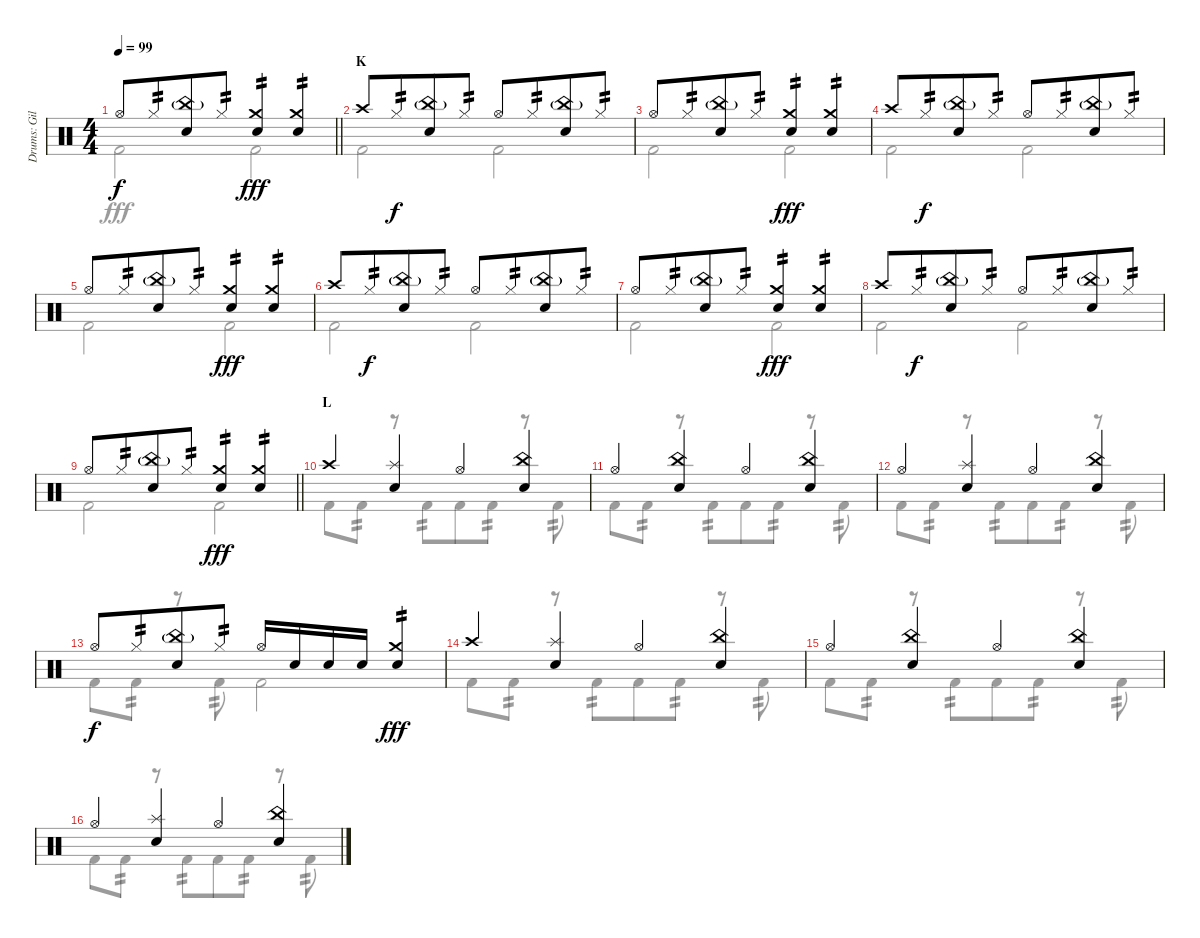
\track ("Drums: Gil" "Drums: Gil") {instrument percussion}
\staff {score}
\articulation defaults
\voice
\ts (4 4)
\tempo 99
\clef neutral
\barLineRight lightlight
\ks c "Hi-Hat (open)".8{dy f} "Hi-Hat (closed)".8{tp 2 beam merge}
("China (hit)"{g} "Snare (hit) 2").8 "Hi-Hat (closed)".8{tp 2} ("Crash medium (hit)" "Snare (hit) 2").4{tp 2 dy fff} ("Crash medium (hit)" "Snare (hit) 2").4{tp 2} |
\section ("" "K")
"Crash high (hit)".8 "Hi-Hat (closed)".8{tp 2 dy f beam merge} ("China (hit)"{g} "Snare (hit) 2").8 "Hi-Hat (closed)".8{tp 2} "Hi-Hat (open)".8 "Hi-Hat (closed)".8{tp 2 beam merge} ("China (hit)"{g} "Snare (hit) 2").8 "Hi-Hat (closed)".8{tp 2} |
"Hi-Hat (open)".8 "Hi-Hat (closed)".8{tp 2 beam merge} ("China (hit)"{g} "Snare (hit) 2").8 "Hi-Hat (closed)".8{tp 2} ("Crash medium (hit)" "Snare (hit) 2").4{tp 2 dy fff} ("Crash medium (hit)" "Snare (hit) 2").4{tp 2} |
"Crash high (hit)".8 "Hi-Hat (closed)".8{tp 2 dy f beam merge} ("China (hit)"{g} "Snare (hit) 2").8 "Hi-Hat (closed)".8{tp 2} "Hi-Hat (open)".8 "Hi-Hat (closed)".8{tp 2 beam merge} ("China (hit)"{g} "Snare (hit) 2").8 "Hi-Hat (closed)".8{tp 2} |
"Hi-Hat (open)".8 "Hi-Hat (closed)".8{tp 2 beam merge} ("China (hit)"{g} "Snare (hit) 2").8 "Hi-Hat (closed)".8{tp 2} ("Crash medium (hit)" "Snare (hit) 2").4{tp 2 dy fff} ("Crash medium (hit)" "Snare (hit) 2").4{tp 2} |
"Crash high (hit)".8 "Hi-Hat (closed)".8{tp 2 dy f beam merge} ("China (hit)"{g} "Snare (hit) 2").8 "Hi-Hat (closed)".8{tp 2} "Hi-Hat (open)".8 "Hi-Hat (closed)".8{tp 2 beam merge} ("China (hit)"{g} "Snare (hit) 2").8 "Hi-Hat (closed)".8{tp 2} |
"Hi-Hat (open)".8 "Hi-Hat (closed)".8{tp 2 beam merge} ("China (hit)"{g} "Snare (hit) 2").8 "Hi-Hat (closed)".8{tp 2} ("Crash medium (hit)" "Snare (hit) 2").4{tp 2 dy fff} ("Crash medium (hit)" "Snare (hit) 2").4{tp 2} |
"Crash high (hit)".8 "Hi-Hat (closed)".8{tp 2 dy f beam merge} ("China (hit)"{g} "Snare (hit) 2").8 "Hi-Hat (closed)".8{tp 2} "Hi-Hat (open)".8 "Hi-Hat (closed)".8{tp 2 beam merge} ("China (hit)"{g} "Snare (hit) 2").8 "Hi-Hat (closed)".8{tp 2} |
\barLineRight lightlight "Hi-Hat (open)".8 "Hi-Hat (closed)".8{tp 2 beam merge}
("China (hit)"{g} "Snare (hit) 2").8 "Hi-Hat (closed)".8{tp 2} ("Crash medium (hit)" "Snare (hit) 2").4{tp 2 dy fff} ("Crash medium (hit)" "Snare (hit) 2").4{tp 2} |
\section ("" "L")
"Crash high (hit)".4 ("Splash (hit)" "Snare (hit) 2").4 "Hi-Hat (open)".4 ("China (hit)" "Snare (hit) 2").4 |
"Hi-Hat (open)".4 ("China (hit)" "Snare (hit) 2").4 "Hi-Hat (open)".4 ("China (hit)" "Snare (hit) 2").4 |
"Hi-Hat (open)".4 ("Splash (hit)" "Snare (hit) 2").4 "Hi-Hat (open)".4 ("China (hit)" "Snare (hit) 2").4 |
"Hi-Hat (open)".8{dy f beam merge} "Hi-Hat (closed)".8{tp 2 beam merge} ("China (hit)"{g} "Snare (hit) 2").8{beam merge} "Hi-Hat (closed)".8{tp 2} "Hi-Hat (open)".16 "Snare (hit) 2".16 "Snare (hit) 2".16 "Snare (hit) 2".16 ("Crash medium (hit)" "Snare (hit) 2").4{tp 2 dy fff} |
"Crash high (hit)".4 ("Splash (hit)" "Snare (hit) 2").4 "Hi-Hat (open)".4 ("China (hit)" "Snare (hit) 2").4 |
"Hi-Hat (open)".4 ("China (hit)" "Snare (hit) 2").4 "Hi-Hat (open)".4 ("China (hit)" "Snare (hit) 2").4 |
"Hi-Hat (open)".4 ("Splash (hit)" "Snare (hit) 2").4 "Hi-Hat (open)".4 ("China (hit)" "Snare (hit) 2").4
\voice
\clef neutral
\ottava regular
\simile none
\barLineRight lightlight
\ks c "Kick (hit) 2".2{dy fff} "Kick (hit) 2".2
|
"Kick (hit) 2".2 "Kick (hit) 2".2 |
"Kick (hit) 2".2 "Kick (hit) 2".2 |
"Kick (hit) 2".2 "Kick (hit) 2".2 |
"Kick (hit) 2".2 "Kick (hit) 2".2 |
"Kick (hit) 2".2 "Kick (hit) 2".2 |
"Kick (hit) 2".2 "Kick (hit) 2".2 |
"Kick (hit) 2".2 "Kick (hit) 2".2 |
\barLineRight lightlight "Kick (hit) 2".2 "Kick (hit) 2".2
|
"Kick (hit) 2".8 "Kick (hit) 2".8{tp 2} r.8 "Kick (hit) 2".8{tp 2 beam merge} "Kick (hit) 2".8 "Kick (hit) 2".8{tp 2} r.8 "Kick (hit) 2".8{tp 2} |
"Kick (hit) 2".8 "Kick (hit) 2".8{tp 2} r.8 "Kick (hit) 2".8{tp 2 beam merge} "Kick (hit) 2".8 "Kick (hit) 2".8{tp 2} r.8 "Kick (hit) 2".8{tp 2} |
"Kick (hit) 2".8 "Kick (hit) 2".8{tp 2} r.8 "Kick (hit) 2".8{tp 2 beam merge} "Kick (hit) 2".8 "Kick (hit) 2".8{tp 2} r.8 "Kick (hit) 2".8{tp 2} |
"Kick (hit) 2".8 "Kick (hit) 2".8{tp 2} r.8 "Kick (hit) 2".8{tp 2} "Kick (hit) 2".2 |
"Kick (hit) 2".8 "Kick (hit) 2".8{tp 2} r.8 "Kick (hit) 2".8{tp 2 beam merge} "Kick (hit) 2".8 "Kick (hit) 2".8{tp 2} r.8 "Kick (hit) 2".8{tp 2} |
"Kick (hit) 2".8 "Kick (hit) 2".8{tp 2} r.8 "Kick (hit) 2".8{tp 2 beam merge} "Kick (hit) 2".8 "Kick (hit) 2".8{tp 2} r.8 "Kick (hit) 2".8{tp 2} |
"Kick (hit) 2".8 "Kick (hit) 2".8{tp 2} r.8 "Kick (hit) 2".8{tp 2 beam merge} "Kick (hit) 2".8 "Kick (hit) 2".8{tp 2} r.8 "Kick (hit) 2".8{tp 2}
